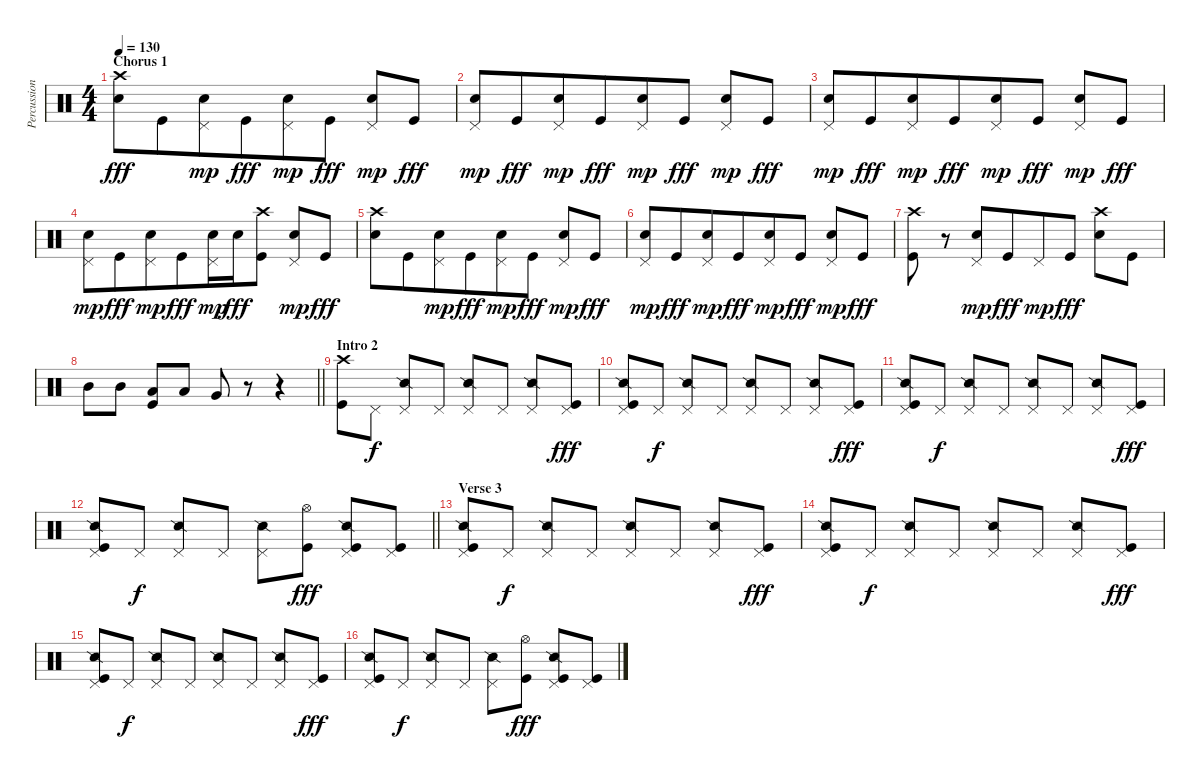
\track ("Percussion" "Percussion") {instrument percussion bank 255}
\staff {score}
\articulation defaults
\ts (4 4)
\section ("" "Chorus 1")
\tempo 130
\clef neutral
\ks c
("Snare (hit) 2" "Crash high (hit)").8{dy fff} "Kick (hit)".8{beam merge} ("Snare (hit) 2" "Pedal Hi-Hat (hit)").8{dy mp} "Kick (hit)".8{dy fff beam merge} ("Snare (hit) 2" "Pedal Hi-Hat (hit)").8{dy mp beam merge} "Kick (hit)".8{dy fff} ("Snare (hit) 2" "Pedal Hi-Hat (hit)").8{dy mp beam merge} "Kick (hit)".8{dy fff} |
("Snare (hit) 2" "Pedal Hi-Hat (hit)").8{dy mp} "Kick (hit)".8{dy fff beam merge} ("Snare (hit) 2" "Pedal Hi-Hat (hit)").8{dy mp} "Kick (hit)".8{dy fff beam merge} ("Snare (hit) 2" "Pedal Hi-Hat (hit)").8{dy mp beam merge} "Kick (hit)".8{dy fff} ("Snare (hit) 2" "Pedal Hi-Hat (hit)").8{dy mp beam merge} "Kick (hit)".8{dy fff} |
("Snare (hit) 2" "Pedal Hi-Hat (hit)").8{dy mp} "Kick (hit)".8{dy fff beam merge} ("Snare (hit) 2" "Pedal Hi-Hat (hit)").8{dy mp} "Kick (hit)".8{dy fff beam merge} ("Snare (hit) 2" "Pedal Hi-Hat (hit)").8{dy mp beam merge} "Kick (hit)".8{dy fff} ("Snare (hit) 2" "Pedal Hi-Hat (hit)").8{dy mp beam merge} "Kick (hit)".8{dy fff} |
("Snare (hit) 2" "Pedal Hi-Hat (hit)").8{dy mp} "Kick (hit)".8{dy fff beam merge} ("Snare (hit) 2" "Pedal Hi-Hat (hit)").8{dy mp} "Kick (hit)".8{dy fff beam merge} ("Snare (hit) 2" "Pedal Hi-Hat (hit)").16{dy mp} "Snare (hit) 2".16{dy fff beam merge} ("Kick (hit)" "Crash high (hit)").8 ("Snare (hit) 2" "Pedal Hi-Hat (hit)").8{dy mp} "Kick (hit)".8{dy fff} |
("Snare (hit) 2" "Crash high (hit)").8 "Kick (hit)".8{beam merge} ("Snare (hit) 2" "Pedal Hi-Hat (hit)").8{dy mp} "Kick (hit)".8{dy fff beam merge} ("Snare (hit) 2" "Pedal Hi-Hat (hit)").8{dy mp beam merge} "Kick (hit)".8{dy fff} ("Snare (hit) 2" "Pedal Hi-Hat (hit)").8{dy mp beam merge} "Kick (hit)".8{dy fff} |
("Snare (hit) 2" "Pedal Hi-Hat (hit)").8{dy mp} "Kick (hit)".8{dy fff beam merge} ("Snare (hit) 2" "Pedal Hi-Hat (hit)").8{dy mp} "Kick (hit)".8{dy fff beam merge} ("Snare (hit) 2" "Pedal Hi-Hat (hit)").8{dy mp beam merge} "Kick (hit)".8{dy fff} ("Snare (hit) 2" "Pedal Hi-Hat (hit)").8{dy mp beam merge} "Kick (hit)".8{dy fff} |
("Kick (hit)" "Crash high (hit)").8 r.8{beam merge} ("Snare (hit) 2" "Pedal Hi-Hat (hit)").8{dy mp} "Kick (hit)".8{dy fff beam merge} "Pedal Hi-Hat (hit)".8{dy mp beam merge} "Kick (hit)".8{dy fff} ("Snare (hit) 2" "Crash high (hit)").8 "Kick (hit)".8 |
\barLineRight lightlight "Mid Tom (hit)".8{beam merge} "Mid Tom (hit)".8
("Kick (hit)" "Low Tom (hit)").8 "Low Tom (hit)".8 "Very Low Tom (hit)".8 r.8{beam merge} r.4 |
\section ("" "Intro 2")
("Crash high (hit)" "Kick (hit)").8 "Pedal Hi-Hat (hit)".8{dy f} ("Pedal Hi-Hat (hit)" "Snare (side stick) 2").8 "Pedal Hi-Hat (hit)".8 ("Pedal Hi-Hat (hit)" "Snare (side stick) 2").8{beam merge} "Pedal Hi-Hat (hit)".8 ("Pedal Hi-Hat (hit)" "Snare (side stick) 2").8 ("Pedal Hi-Hat (hit)" "Kick (hit)").8{dy fff} |
("Pedal Hi-Hat (hit)" "Kick (hit)" "Snare (side stick) 2").8 "Pedal Hi-Hat (hit)".8{dy f} ("Pedal Hi-Hat (hit)" "Snare (side stick) 2").8 "Pedal Hi-Hat (hit)".8 ("Pedal Hi-Hat (hit)" "Snare (side stick) 2").8{beam merge} "Pedal Hi-Hat (hit)".8 ("Pedal Hi-Hat (hit)" "Snare (side stick) 2").8 ("Pedal Hi-Hat (hit)" "Kick (hit)").8{dy fff} |
("Pedal Hi-Hat (hit)" "Kick (hit)" "Snare (side stick) 2").8 "Pedal Hi-Hat (hit)".8{dy f} ("Pedal Hi-Hat (hit)" "Snare (side stick) 2").8 "Pedal Hi-Hat (hit)".8 ("Pedal Hi-Hat (hit)" "Snare (side stick) 2").8{beam merge} "Pedal Hi-Hat (hit)".8 ("Pedal Hi-Hat (hit)" "Snare (side stick) 2").8 ("Pedal Hi-Hat (hit)" "Kick (hit)").8{dy fff} |
\barLineRight lightlight
("Pedal Hi-Hat (hit)" "Kick (hit)" "Snare (side stick) 2").8 "Pedal Hi-Hat (hit)".8{dy f} ("Pedal Hi-Hat (hit)" "Snare (side stick) 2").8 "Pedal Hi-Hat (hit)".8 ("Pedal Hi-Hat (hit)" "Snare (side stick) 2").8{beam merge} ("Kick (hit)" "Hi-Hat (open)").8{dy fff} ("Kick (hit)" "Pedal Hi-Hat (hit)" "Snare (side stick) 2").8 ("Kick (hit)" "Pedal Hi-Hat (hit)").8 |
\section ("" "Verse 3")
("Pedal Hi-Hat (hit)" "Snare (side stick) 2" "Kick (hit)").8 "Pedal Hi-Hat (hit)".8{dy f} ("Pedal Hi-Hat (hit)" "Snare (side stick) 2").8 "Pedal Hi-Hat (hit)".8 ("Pedal Hi-Hat (hit)" "Snare (side stick) 2").8{beam merge} "Pedal Hi-Hat (hit)".8 ("Pedal Hi-Hat (hit)" "Snare (side stick) 2").8 ("Pedal Hi-Hat (hit)" "Kick (hit)").8{dy fff} |
("Pedal Hi-Hat (hit)" "Snare (side stick) 2" "Kick (hit)").8 "Pedal Hi-Hat (hit)".8{dy f} ("Pedal Hi-Hat (hit)" "Snare (side stick) 2").8 "Pedal Hi-Hat (hit)".8 ("Pedal Hi-Hat (hit)" "Snare (side stick) 2").8{beam merge} "Pedal Hi-Hat (hit)".8 ("Pedal Hi-Hat (hit)" "Snare (side stick) 2").8 ("Pedal Hi-Hat (hit)" "Kick (hit)").8{dy fff} |
("Pedal Hi-Hat (hit)" "Snare (side stick) 2" "Kick (hit)").8 "Pedal Hi-Hat (hit)".8{dy f} ("Pedal Hi-Hat (hit)" "Snare (side stick) 2").8 "Pedal Hi-Hat (hit)".8 ("Pedal Hi-Hat (hit)" "Snare (side stick) 2").8{beam merge} "Pedal Hi-Hat (hit)".8 ("Pedal Hi-Hat (hit)" "Snare (side stick) 2").8 ("Pedal Hi-Hat (hit)" "Kick (hit)").8{dy fff} |
("Pedal Hi-Hat (hit)" "Kick (hit)" "Snare (side stick) 2").8 "Pedal Hi-Hat (hit)".8{dy f} ("Pedal Hi-Hat (hit)" "Snare (side stick) 2").8 "Pedal Hi-Hat (hit)".8 ("Pedal Hi-Hat (hit)" "Snare (side stick) 2").8{beam merge} ("Kick (hit)" "Hi-Hat (open)").8{dy fff} ("Kick (hit)" "Pedal Hi-Hat (hit)" "Snare (side stick) 2").8 ("Kick (hit)" "Pedal Hi-Hat (hit)").8
